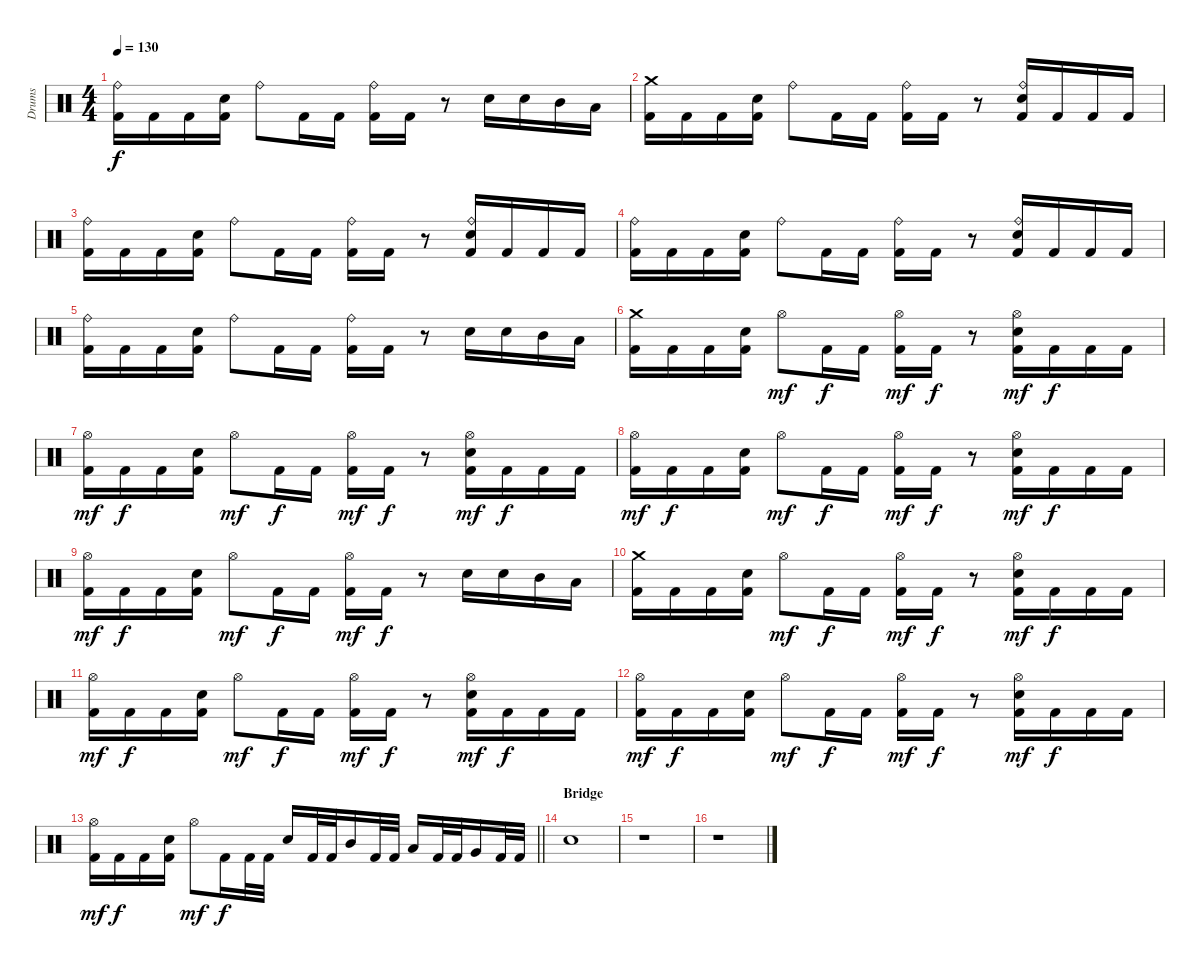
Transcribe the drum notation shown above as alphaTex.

\track ("Drums" "Drums") {instrument percussion}
\staff {score}
\articulation defaults
\ts (4 4)
\tempo 130
\clef neutral
\ks c
("Kick (hit) 2" "Ride (bell)").16{dy f} "Kick (hit) 2".16 "Kick (hit) 2".16 ("Kick (hit) 2" "Electric Snare (hit)").16 "Ride (bell)".8 "Kick (hit) 2".16 "Kick (hit) 2".16 ("Kick (hit) 2" "Ride (bell)").16 "Kick (hit) 2".16 r.8 "Electric Snare (hit)".16 "Electric Snare (hit)".16 "Mid Tom (hit)".16 "Low Tom (hit)".16 |
("Kick (hit) 2" "Crash medium (hit)").16 "Kick (hit) 2".16 "Kick (hit) 2".16 ("Kick (hit) 2" "Electric Snare (hit)").16 "Ride (bell)".8 "Kick (hit) 2".16 "Kick (hit) 2".16 ("Kick (hit) 2" "Ride (bell)").16 "Kick (hit) 2".16 r.8 ("Kick (hit) 2" "Ride (bell)" "Electric Snare (hit)").16 "Kick (hit) 2".16 "Kick (hit) 2".16 "Kick (hit) 2".16 |
("Kick (hit) 2" "Ride (bell)").16 "Kick (hit) 2".16 "Kick (hit) 2".16 ("Kick (hit) 2" "Electric Snare (hit)").16 "Ride (bell)".8 "Kick (hit) 2".16 "Kick (hit) 2".16 ("Kick (hit) 2" "Ride (bell)").16 "Kick (hit) 2".16 r.8 ("Kick (hit) 2" "Ride (bell)" "Electric Snare (hit)").16 "Kick (hit) 2".16 "Kick (hit) 2".16 "Kick (hit) 2".16 |
("Kick (hit) 2" "Ride (bell)").16 "Kick (hit) 2".16 "Kick (hit) 2".16 ("Kick (hit) 2" "Electric Snare (hit)").16 "Ride (bell)".8 "Kick (hit) 2".16 "Kick (hit) 2".16 ("Kick (hit) 2" "Ride (bell)").16 "Kick (hit) 2".16 r.8 ("Kick (hit) 2" "Ride (bell)" "Electric Snare (hit)").16 "Kick (hit) 2".16 "Kick (hit) 2".16 "Kick (hit) 2".16 |
("Kick (hit) 2" "Ride (bell)").16 "Kick (hit) 2".16 "Kick (hit) 2".16 ("Kick (hit) 2" "Electric Snare (hit)").16 "Ride (bell)".8 "Kick (hit) 2".16 "Kick (hit) 2".16 ("Kick (hit) 2" "Ride (bell)").16 "Kick (hit) 2".16 r.8 "Electric Snare (hit)".16 "Electric Snare (hit)".16 "Mid Tom (hit)".16 "Low Tom (hit)".16 |
("Kick (hit) 2" "Crash medium (hit)").16 "Kick (hit) 2".16 "Kick (hit) 2".16 ("Kick (hit) 2" "Electric Snare (hit)").16 "Hi-Hat (open)".8{dy mf} "Kick (hit) 2".16{dy f} "Kick (hit) 2".16 ("Kick (hit) 2" "Hi-Hat (open)").16{dy mf} "Kick (hit) 2".16{dy f} r.8 ("Kick (hit) 2" "Hi-Hat (open)" "Electric Snare (hit)").16{dy mf} "Kick (hit) 2".16{dy f} "Kick (hit) 2".16 "Kick (hit) 2".16 |
("Kick (hit) 2" "Hi-Hat (open)").16{dy mf} "Kick (hit) 2".16{dy f} "Kick (hit) 2".16 ("Kick (hit) 2" "Electric Snare (hit)").16 "Hi-Hat (open)".8{dy mf} "Kick (hit) 2".16{dy f} "Kick (hit) 2".16 ("Kick (hit) 2" "Hi-Hat (open)").16{dy mf} "Kick (hit) 2".16{dy f} r.8 ("Kick (hit) 2" "Hi-Hat (open)" "Electric Snare (hit)").16{dy mf} "Kick (hit) 2".16{dy f} "Kick (hit) 2".16 "Kick (hit) 2".16 |
("Kick (hit) 2" "Hi-Hat (open)").16{dy mf} "Kick (hit) 2".16{dy f} "Kick (hit) 2".16 ("Kick (hit) 2" "Electric Snare (hit)").16 "Hi-Hat (open)".8{dy mf} "Kick (hit) 2".16{dy f} "Kick (hit) 2".16 ("Kick (hit) 2" "Hi-Hat (open)").16{dy mf} "Kick (hit) 2".16{dy f} r.8 ("Kick (hit) 2" "Hi-Hat (open)" "Electric Snare (hit)").16{dy mf} "Kick (hit) 2".16{dy f} "Kick (hit) 2".16 "Kick (hit) 2".16 |
("Kick (hit) 2" "Hi-Hat (open)").16{dy mf} "Kick (hit) 2".16{dy f} "Kick (hit) 2".16 ("Kick (hit) 2" "Electric Snare (hit)").16 "Hi-Hat (open)".8{dy mf} "Kick (hit) 2".16{dy f} "Kick (hit) 2".16 ("Kick (hit) 2" "Hi-Hat (open)").16{dy mf} "Kick (hit) 2".16{dy f} r.8 "Electric Snare (hit)".16 "Electric Snare (hit)".16 "Mid Tom (hit)".16 "Low Tom (hit)".16 |
("Kick (hit) 2" "Crash medium (hit)").16 "Kick (hit) 2".16 "Kick (hit) 2".16 ("Kick (hit) 2" "Electric Snare (hit)").16 "Hi-Hat (open)".8{dy mf} "Kick (hit) 2".16{dy f} "Kick (hit) 2".16 ("Kick (hit) 2" "Hi-Hat (open)").16{dy mf} "Kick (hit) 2".16{dy f} r.8 ("Kick (hit) 2" "Hi-Hat (open)" "Electric Snare (hit)").16{dy mf} "Kick (hit) 2".16{dy f} "Kick (hit) 2".16 "Kick (hit) 2".16 |
("Kick (hit) 2" "Hi-Hat (open)").16{dy mf} "Kick (hit) 2".16{dy f} "Kick (hit) 2".16 ("Kick (hit) 2" "Electric Snare (hit)").16 "Hi-Hat (open)".8{dy mf} "Kick (hit) 2".16{dy f} "Kick (hit) 2".16 ("Kick (hit) 2" "Hi-Hat (open)").16{dy mf} "Kick (hit) 2".16{dy f} r.8 ("Kick (hit) 2" "Hi-Hat (open)" "Electric Snare (hit)").16{dy mf} "Kick (hit) 2".16{dy f} "Kick (hit) 2".16 "Kick (hit) 2".16 |
("Kick (hit) 2" "Hi-Hat (open)").16{dy mf} "Kick (hit) 2".16{dy f} "Kick (hit) 2".16 ("Kick (hit) 2" "Electric Snare (hit)").16 "Hi-Hat (open)".8{dy mf} "Kick (hit) 2".16{dy f} "Kick (hit) 2".16 ("Kick (hit) 2" "Hi-Hat (open)").16{dy mf} "Kick (hit) 2".16{dy f} r.8 ("Kick (hit) 2" "Hi-Hat (open)" "Electric Snare (hit)").16{dy mf} "Kick (hit) 2".16{dy f} "Kick (hit) 2".16 "Kick (hit) 2".16 |
\barLineRight lightlight
("Kick (hit) 2" "Hi-Hat (open)").16{dy mf} "Kick (hit) 2".16{dy f} "Kick (hit) 2".16 ("Kick (hit) 2" "Electric Snare (hit)").16 "Hi-Hat (open)".8{dy mf} "Kick (hit) 2".16{dy f} "Kick (hit) 2".32 "Kick (hit) 2".32 "Electric Snare (hit)".16 "Kick (hit) 2".32 "Kick (hit) 2".32 "Mid Tom (hit)".16 "Kick (hit) 2".32 "Kick (hit) 2".32 "Low Tom (hit)".16 "Kick (hit) 2".32 "Kick (hit) 2".32 "Very Low Tom (hit)".16 "Kick (hit) 2".32 "Kick (hit) 2".32 |
\section ("" "Bridge")
"Electric Snare (hit)".1 |
r.1 |
r.1
